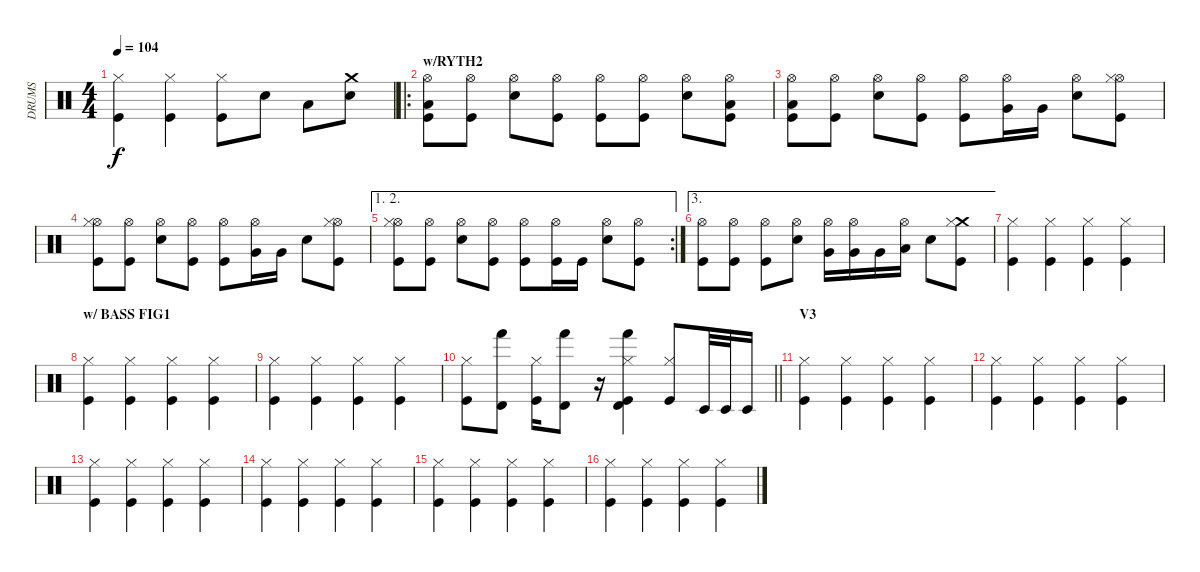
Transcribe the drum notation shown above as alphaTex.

\track ("DRUMS" "DRUMS") {instrument percussion}
\staff {score}
\articulation defaults
\ts (4 4)
\tempo 104
\clef neutral
\ks c
("Kick (hit)" "Hi-Hat (closed)").4{dy f} ("Hi-Hat (closed)" "Kick (hit)").4 ("Hi-Hat (closed)" "Kick (hit)").8 "Snare (hit) 2".8 "Low Floor Tom (hit)".8 ("Snare (hit) 2" "Crash medium (hit)").8 |
\ro
\section ("" "w/RYTH2")
("Kick (hit)" "Hi-Hat (open)" "Low Floor Tom (hit)").8 ("Kick (hit)" "Hi-Hat (open)").8 ("Snare (hit) 2" "Hi-Hat (open)").8 ("Kick (hit)" "Hi-Hat (open)").8 ("Kick (hit)" "Hi-Hat (open)").8 ("Kick (hit)" "Hi-Hat (open)").8 ("Snare (hit) 2" "Hi-Hat (open)").8 ("Kick (hit)" "Hi-Hat (open)" "Low Floor Tom (hit)").8 |
("Kick (hit)" "Hi-Hat (open)" "Low Floor Tom (hit)").8 ("Kick (hit)" "Hi-Hat (open)").8 ("Snare (hit) 2" "Hi-Hat (open)").8 ("Kick (hit)" "Hi-Hat (open)").8 ("Kick (hit)" "Hi-Hat (open)").8 ("Very Low Tom (hit)" "Hi-Hat (open)").16 "Very Low Tom (hit)".16 ("Snare (hit) 2" "Hi-Hat (open)").8 ("Kick (hit)" "Hi-Hat (open)" "Hi-Hat (closed)").8 |
("Kick (hit)" "Hi-Hat (open)" "Hi-Hat (closed)").8 ("Kick (hit)" "Hi-Hat (open)").8 ("Snare (hit) 2" "Hi-Hat (open)").8 ("Kick (hit)" "Hi-Hat (open)").8 ("Kick (hit)" "Hi-Hat (open)").8 ("Very Low Tom (hit)" "Hi-Hat (open)").16 "Very Low Tom (hit)".16 "Snare (hit) 2".8 ("Kick (hit)" "Hi-Hat (open)" "Hi-Hat (closed)").8 |
\ae (1 2)
\rc 2
("Kick (hit)" "Hi-Hat (open)" "Hi-Hat (closed)").8 ("Kick (hit)" "Hi-Hat (open)").8 ("Snare (hit) 2" "Hi-Hat (open)").8 ("Kick (hit)" "Hi-Hat (open)").8 ("Kick (hit)" "Hi-Hat (open)").8 ("Kick (hit)" "Hi-Hat (open)").16 "Kick (hit)".16 ("Hi-Hat (open)" "Snare (hit) 2").8 ("Kick (hit)" "Hi-Hat (open)").8 |
\ae 3
("Kick (hit)" "Hi-Hat (open)").8 ("Kick (hit)" "Hi-Hat (open)").8 ("Kick (hit)" "Hi-Hat (open)").8 ("Snare (hit) 2" "Hi-Hat (open)").8 ("Very Low Tom (hit)" "Hi-Hat (open)").16 ("Very Low Tom (hit)" "Hi-Hat (open)").16 "Very Low Tom (hit)".16 ("Low Floor Tom (hit)" "Hi-Hat (open)").16 "Snare (hit) 2".8 ("Kick (hit)" "Crash medium (hit)" "Hi-Hat (closed)").8 |
("Hi-Hat (closed)" "Kick (hit)").4 ("Hi-Hat (closed)" "Kick (hit)").4 ("Hi-Hat (closed)" "Kick (hit)").4 ("Hi-Hat (closed)" "Kick (hit)").4 |
\section ("" "w/ BASS FIG1")
("Hi-Hat (closed)" "Kick (hit)").4 ("Hi-Hat (closed)" "Kick (hit)").4 ("Hi-Hat (closed)" "Kick (hit)").4 ("Hi-Hat (closed)" "Kick (hit)").4 |
("Hi-Hat (closed)" "Kick (hit)").4 ("Hi-Hat (closed)" "Kick (hit)").4 ("Hi-Hat (closed)" "Kick (hit)").4 ("Hi-Hat (closed)" "Kick (hit)").4 |
\barLineRight lightlight
("Kick (hit)" "Hi-Hat (closed)").8 ("Timbale high (hit)" "Hand (hit)").8 ("Hi-Hat (closed)" "Kick (hit)").16 ("Timbale high (hit)" "Hand (hit)").8 r.16 ("Hi-Hat (closed)" "Kick (hit)" "Timbale high (hit)" "Hand (hit)").4 ("Hi-Hat (closed)" "Kick (hit)").8 "Timbale low (hit)".32{volume 9} "Timbale low (hit)".32 "Timbale low (hit)".16 |
\section ("" "V3")
("Hi-Hat (closed)" "Kick (hit)").4{volume 16} ("Hi-Hat (closed)" "Kick (hit)").4 ("Hi-Hat (closed)" "Kick (hit)").4 ("Hi-Hat (closed)" "Kick (hit)").4 |
("Hi-Hat (closed)" "Kick (hit)").4 ("Hi-Hat (closed)" "Kick (hit)").4 ("Hi-Hat (closed)" "Kick (hit)").4 ("Hi-Hat (closed)" "Kick (hit)").4 |
("Hi-Hat (closed)" "Kick (hit)").4 ("Hi-Hat (closed)" "Kick (hit)").4 ("Hi-Hat (closed)" "Kick (hit)").4 ("Hi-Hat (closed)" "Kick (hit)").4 |
("Hi-Hat (closed)" "Kick (hit)").4 ("Hi-Hat (closed)" "Kick (hit)").4 ("Hi-Hat (closed)" "Kick (hit)").4 ("Hi-Hat (closed)" "Kick (hit)").4 |
("Hi-Hat (closed)" "Kick (hit)").4 ("Hi-Hat (closed)" "Kick (hit)").4 ("Hi-Hat (closed)" "Kick (hit)").4 ("Hi-Hat (closed)" "Kick (hit)").4 |
("Hi-Hat (closed)" "Kick (hit)").4 ("Hi-Hat (closed)" "Kick (hit)").4 ("Hi-Hat (closed)" "Kick (hit)").4 ("Hi-Hat (closed)" "Kick (hit)").4
